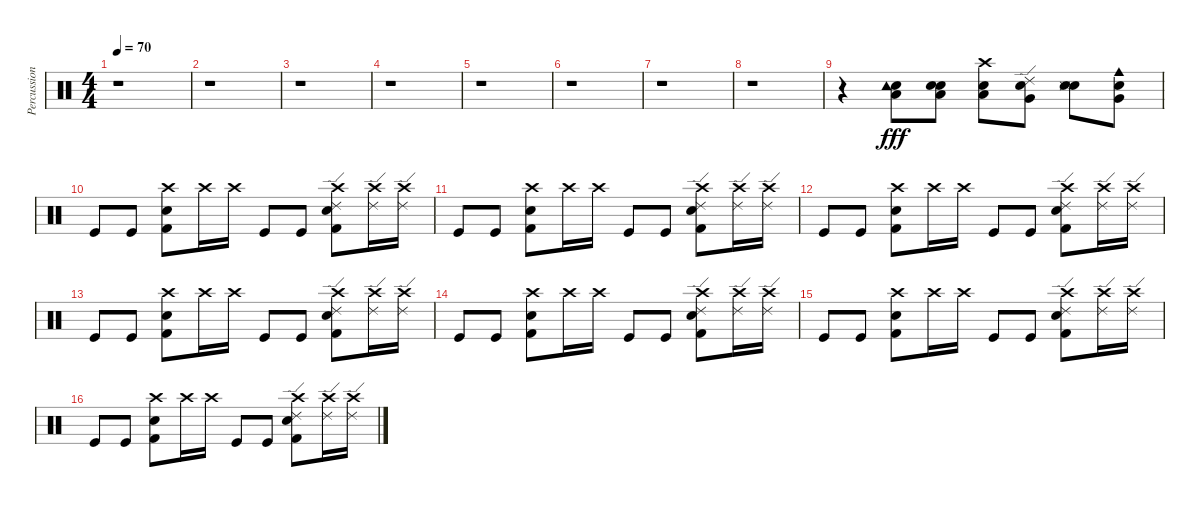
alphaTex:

\track ("Percussion" "Percussion") {instrument percussion}
\staff {score}
\articulation defaults
\ts (4 4)
\tempo 70
\clef neutral
\ks c
r.1{dy fff} |
r.1 |
r.1 |
r.1 |
r.1 |
r.1 |
r.1 |
r.1 |
r.4 ("Metronome (bell)" "Low Tom (hit)" "Tambourine (hit)").8 ("Metronome (bell)" "Low Tom (hit)" "Metronome (bell)").8 ("Metronome (bell)" "Low Tom (hit)" "Crash high (hit)").8 ("Metronome (bell)" "Very Low Tom (hit)" "Ride (edge) 2").8 ("Metronome (bell)" "Snare (hit)" "Metronome (hit)").8 ("Metronome (bell)" "Cowbell medium (hit)" "Very Low Tom (hit)").8 |
"Kick (hit)".8 "Kick (hit)".8 ("Metronome (bell)" "Crash high (hit)" "Kick (hit) 2").8 "Crash high (hit)".16 "Crash high (hit)".16 "Kick (hit)".8 "Kick (hit)".8 ("Metronome (bell)" "Ride (edge) 2" "Kick (hit) 2" "Crash high (hit)").8 ("Ride (edge) 2" "Crash high (hit)").16 ("Ride (edge) 2" "Crash high (hit)").16 |
"Kick (hit)".8 "Kick (hit)".8 ("Metronome (bell)" "Crash high (hit)" "Kick (hit) 2").8 "Crash high (hit)".16 "Crash high (hit)".16 "Kick (hit)".8 "Kick (hit)".8 ("Metronome (bell)" "Ride (edge) 2" "Kick (hit) 2" "Crash high (hit)").8 ("Ride (edge) 2" "Crash high (hit)").16 ("Ride (edge) 2" "Crash high (hit)").16 |
"Kick (hit)".8 "Kick (hit)".8 ("Metronome (bell)" "Crash high (hit)" "Kick (hit) 2").8 "Crash high (hit)".16 "Crash high (hit)".16 "Kick (hit)".8 "Kick (hit)".8 ("Metronome (bell)" "Ride (edge) 2" "Kick (hit) 2" "Crash high (hit)").8 ("Ride (edge) 2" "Crash high (hit)").16 ("Ride (edge) 2" "Crash high (hit)").16 |
"Kick (hit)".8 "Kick (hit)".8 ("Metronome (bell)" "Crash high (hit)" "Kick (hit) 2").8 "Crash high (hit)".16 "Crash high (hit)".16 "Kick (hit)".8 "Kick (hit)".8 ("Metronome (bell)" "Ride (edge) 2" "Kick (hit) 2" "Crash high (hit)").8 ("Ride (edge) 2" "Crash high (hit)").16 ("Ride (edge) 2" "Crash high (hit)").16 |
"Kick (hit)".8 "Kick (hit)".8 ("Metronome (bell)" "Crash high (hit)" "Kick (hit) 2").8 "Crash high (hit)".16 "Crash high (hit)".16 "Kick (hit)".8 "Kick (hit)".8 ("Metronome (bell)" "Ride (edge) 2" "Kick (hit) 2" "Crash high (hit)").8 ("Ride (edge) 2" "Crash high (hit)").16 ("Ride (edge) 2" "Crash high (hit)").16 |
"Kick (hit)".8 "Kick (hit)".8 ("Metronome (bell)" "Crash high (hit)" "Kick (hit) 2").8 "Crash high (hit)".16 "Crash high (hit)".16 "Kick (hit)".8 "Kick (hit)".8 ("Metronome (bell)" "Ride (edge) 2" "Kick (hit) 2" "Crash high (hit)").8 ("Ride (edge) 2" "Crash high (hit)").16 ("Ride (edge) 2" "Crash high (hit)").16 |
"Kick (hit)".8 "Kick (hit)".8 ("Metronome (bell)" "Crash high (hit)" "Kick (hit) 2").8 "Crash high (hit)".16 "Crash high (hit)".16 "Kick (hit)".8 "Kick (hit)".8 ("Metronome (bell)" "Ride (edge) 2" "Kick (hit) 2" "Crash high (hit)").8 ("Ride (edge) 2" "Crash high (hit)").16 ("Ride (edge) 2" "Crash high (hit)").16
